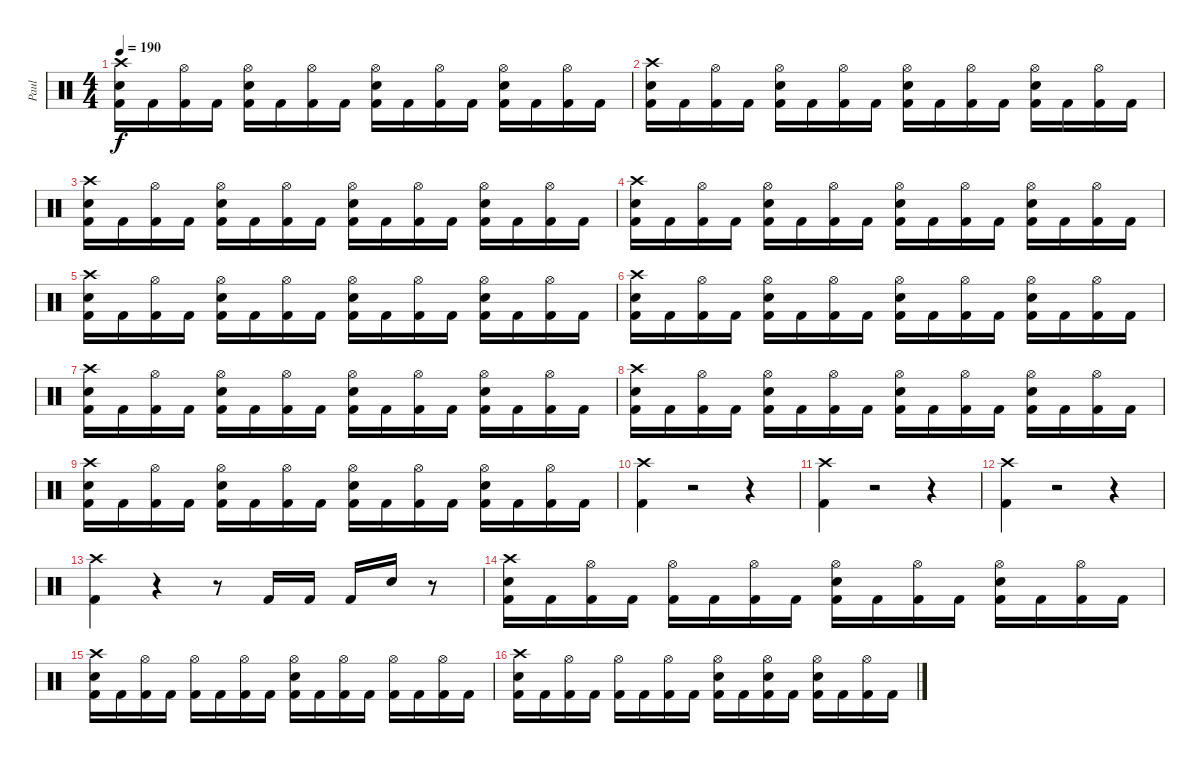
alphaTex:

\track ("Paul" "Paul") {instrument percussion}
\staff {score}
\articulation defaults
\ts (4 4)
\tempo 190
\clef neutral
\ks c
("Crash high (hit)" "Snare (hit) 2" "Kick (hit) 2").16{dy f} "Kick (hit) 2".16 ("Hi-Hat (open)" "Kick (hit) 2").16 "Kick (hit) 2".16 ("Hi-Hat (open)" "Snare (hit) 2" "Kick (hit) 2").16 "Kick (hit) 2".16 ("Hi-Hat (open)" "Kick (hit) 2").16 "Kick (hit) 2".16 ("Hi-Hat (open)" "Snare (hit) 2" "Kick (hit) 2").16 "Kick (hit) 2".16 ("Hi-Hat (open)" "Kick (hit) 2").16 "Kick (hit) 2".16 ("Hi-Hat (open)" "Snare (hit) 2" "Kick (hit) 2").16 "Kick (hit) 2".16 ("Hi-Hat (open)" "Kick (hit) 2").16 "Kick (hit) 2".16 |
("Crash high (hit)" "Snare (hit) 2" "Kick (hit) 2").16 "Kick (hit) 2".16 ("Hi-Hat (open)" "Kick (hit) 2").16 "Kick (hit) 2".16 ("Hi-Hat (open)" "Snare (hit) 2" "Kick (hit) 2").16 "Kick (hit) 2".16 ("Hi-Hat (open)" "Kick (hit) 2").16 "Kick (hit) 2".16 ("Hi-Hat (open)" "Snare (hit) 2" "Kick (hit) 2").16 "Kick (hit) 2".16 ("Hi-Hat (open)" "Kick (hit) 2").16 "Kick (hit) 2".16 ("Hi-Hat (open)" "Snare (hit) 2" "Kick (hit) 2").16 "Kick (hit) 2".16 ("Hi-Hat (open)" "Kick (hit) 2").16 "Kick (hit) 2".16 |
("Crash high (hit)" "Snare (hit) 2" "Kick (hit) 2").16 "Kick (hit) 2".16 ("Hi-Hat (open)" "Kick (hit) 2").16 "Kick (hit) 2".16 ("Hi-Hat (open)" "Snare (hit) 2" "Kick (hit) 2").16 "Kick (hit) 2".16 ("Hi-Hat (open)" "Kick (hit) 2").16 "Kick (hit) 2".16 ("Hi-Hat (open)" "Snare (hit) 2" "Kick (hit) 2").16 "Kick (hit) 2".16 ("Hi-Hat (open)" "Kick (hit) 2").16 "Kick (hit) 2".16 ("Hi-Hat (open)" "Snare (hit) 2" "Kick (hit) 2").16 "Kick (hit) 2".16 ("Hi-Hat (open)" "Kick (hit) 2").16 "Kick (hit) 2".16 |
("Crash high (hit)" "Snare (hit) 2" "Kick (hit) 2").16 "Kick (hit) 2".16 ("Hi-Hat (open)" "Kick (hit) 2").16 "Kick (hit) 2".16 ("Hi-Hat (open)" "Snare (hit) 2" "Kick (hit) 2").16 "Kick (hit) 2".16 ("Hi-Hat (open)" "Kick (hit) 2").16 "Kick (hit) 2".16 ("Hi-Hat (open)" "Snare (hit) 2" "Kick (hit) 2").16 "Kick (hit) 2".16 ("Hi-Hat (open)" "Kick (hit) 2").16 "Kick (hit) 2".16 ("Hi-Hat (open)" "Snare (hit) 2" "Kick (hit) 2").16 "Kick (hit) 2".16 ("Hi-Hat (open)" "Kick (hit) 2").16 "Kick (hit) 2".16 |
("Crash high (hit)" "Snare (hit) 2" "Kick (hit) 2").16 "Kick (hit) 2".16 ("Hi-Hat (open)" "Kick (hit) 2").16 "Kick (hit) 2".16 ("Hi-Hat (open)" "Snare (hit) 2" "Kick (hit) 2").16 "Kick (hit) 2".16 ("Hi-Hat (open)" "Kick (hit) 2").16 "Kick (hit) 2".16 ("Hi-Hat (open)" "Snare (hit) 2" "Kick (hit) 2").16 "Kick (hit) 2".16 ("Hi-Hat (open)" "Kick (hit) 2").16 "Kick (hit) 2".16 ("Hi-Hat (open)" "Snare (hit) 2" "Kick (hit) 2").16 "Kick (hit) 2".16 ("Hi-Hat (open)" "Kick (hit) 2").16 "Kick (hit) 2".16 |
("Crash high (hit)" "Snare (hit) 2" "Kick (hit) 2").16 "Kick (hit) 2".16 ("Hi-Hat (open)" "Kick (hit) 2").16 "Kick (hit) 2".16 ("Hi-Hat (open)" "Snare (hit) 2" "Kick (hit) 2").16 "Kick (hit) 2".16 ("Hi-Hat (open)" "Kick (hit) 2").16 "Kick (hit) 2".16 ("Hi-Hat (open)" "Snare (hit) 2" "Kick (hit) 2").16 "Kick (hit) 2".16 ("Hi-Hat (open)" "Kick (hit) 2").16 "Kick (hit) 2".16 ("Hi-Hat (open)" "Snare (hit) 2" "Kick (hit) 2").16 "Kick (hit) 2".16 ("Hi-Hat (open)" "Kick (hit) 2").16 "Kick (hit) 2".16 |
("Crash high (hit)" "Snare (hit) 2" "Kick (hit) 2").16 "Kick (hit) 2".16 ("Hi-Hat (open)" "Kick (hit) 2").16 "Kick (hit) 2".16 ("Hi-Hat (open)" "Snare (hit) 2" "Kick (hit) 2").16 "Kick (hit) 2".16 ("Hi-Hat (open)" "Kick (hit) 2").16 "Kick (hit) 2".16 ("Hi-Hat (open)" "Snare (hit) 2" "Kick (hit) 2").16 "Kick (hit) 2".16 ("Hi-Hat (open)" "Kick (hit) 2").16 "Kick (hit) 2".16 ("Hi-Hat (open)" "Snare (hit) 2" "Kick (hit) 2").16 "Kick (hit) 2".16 ("Hi-Hat (open)" "Kick (hit) 2").16 "Kick (hit) 2".16 |
("Crash high (hit)" "Snare (hit) 2" "Kick (hit) 2").16 "Kick (hit) 2".16 ("Hi-Hat (open)" "Kick (hit) 2").16 "Kick (hit) 2".16 ("Hi-Hat (open)" "Snare (hit) 2" "Kick (hit) 2").16 "Kick (hit) 2".16 ("Hi-Hat (open)" "Kick (hit) 2").16 "Kick (hit) 2".16 ("Hi-Hat (open)" "Snare (hit) 2" "Kick (hit) 2").16 "Kick (hit) 2".16 ("Hi-Hat (open)" "Kick (hit) 2").16 "Kick (hit) 2".16 ("Hi-Hat (open)" "Snare (hit) 2" "Kick (hit) 2").16 "Kick (hit) 2".16 ("Hi-Hat (open)" "Kick (hit) 2").16 "Kick (hit) 2".16 |
("Crash high (hit)" "Snare (hit) 2" "Kick (hit) 2").16 "Kick (hit) 2".16 ("Hi-Hat (open)" "Kick (hit) 2").16 "Kick (hit) 2".16 ("Hi-Hat (open)" "Snare (hit) 2" "Kick (hit) 2").16 "Kick (hit) 2".16 ("Hi-Hat (open)" "Kick (hit) 2").16 "Kick (hit) 2".16 ("Hi-Hat (open)" "Snare (hit) 2" "Kick (hit) 2").16 "Kick (hit) 2".16 ("Hi-Hat (open)" "Kick (hit) 2").16 "Kick (hit) 2".16 ("Hi-Hat (open)" "Snare (hit) 2" "Kick (hit) 2").16 "Kick (hit) 2".16 ("Hi-Hat (open)" "Kick (hit) 2").16 "Kick (hit) 2".16 |
("Crash high (hit)" "Kick (hit) 2").4 r.2 r.4 |
("Crash high (hit)" "Kick (hit) 2").4 r.2 r.4 |
("Crash high (hit)" "Kick (hit) 2").4 r.2 r.4 |
("Crash high (hit)" "Kick (hit) 2").4 r.4 r.8 "Kick (hit) 2".16 "Kick (hit) 2".16 "Kick (hit) 2".16 "Electric Snare (hit)".16 r.8 |
("Crash high (hit)" "Snare (hit) 2" "Kick (hit) 2").16 "Kick (hit) 2".16 ("Hi-Hat (open)" "Kick (hit) 2").16 "Kick (hit) 2".16 ("Hi-Hat (open)" "Kick (hit) 2").16 "Kick (hit) 2".16 ("Hi-Hat (open)" "Kick (hit) 2").16 "Kick (hit) 2".16 ("Hi-Hat (open)" "Snare (hit) 2" "Kick (hit) 2").16 "Kick (hit) 2".16 ("Hi-Hat (open)" "Kick (hit) 2").16 "Kick (hit) 2".16 ("Hi-Hat (open)" "Snare (hit) 2" "Kick (hit) 2").16 "Kick (hit) 2".16 ("Hi-Hat (open)" "Kick (hit) 2").16 "Kick (hit) 2".16 |
("Crash high (hit)" "Snare (hit) 2" "Kick (hit) 2").16 "Kick (hit) 2".16 ("Hi-Hat (open)" "Kick (hit) 2").16 "Kick (hit) 2".16 ("Hi-Hat (open)" "Kick (hit) 2").16 "Kick (hit) 2".16 ("Hi-Hat (open)" "Kick (hit) 2").16 "Kick (hit) 2".16 ("Hi-Hat (open)" "Snare (hit) 2" "Kick (hit) 2").16 "Kick (hit) 2".16 ("Hi-Hat (open)" "Kick (hit) 2").16 "Kick (hit) 2".16 ("Hi-Hat (open)" "Kick (hit) 2").16 "Kick (hit) 2".16 ("Hi-Hat (open)" "Kick (hit) 2").16 "Kick (hit) 2".16 |
("Crash high (hit)" "Snare (hit) 2" "Kick (hit) 2").16 "Kick (hit) 2".16 ("Hi-Hat (open)" "Kick (hit) 2").16 "Kick (hit) 2".16 ("Hi-Hat (open)" "Kick (hit) 2").16 "Kick (hit) 2".16 ("Hi-Hat (open)" "Kick (hit) 2").16 "Kick (hit) 2".16 ("Hi-Hat (open)" "Snare (hit) 2" "Kick (hit) 2").16 "Kick (hit) 2".16 ("Hi-Hat (open)" "Snare (hit) 2" "Kick (hit) 2").16 "Kick (hit) 2".16 ("Hi-Hat (open)" "Snare (hit) 2" "Kick (hit) 2").16 "Kick (hit) 2".16 ("Hi-Hat (open)" "Kick (hit) 2").16 "Kick (hit) 2".16
